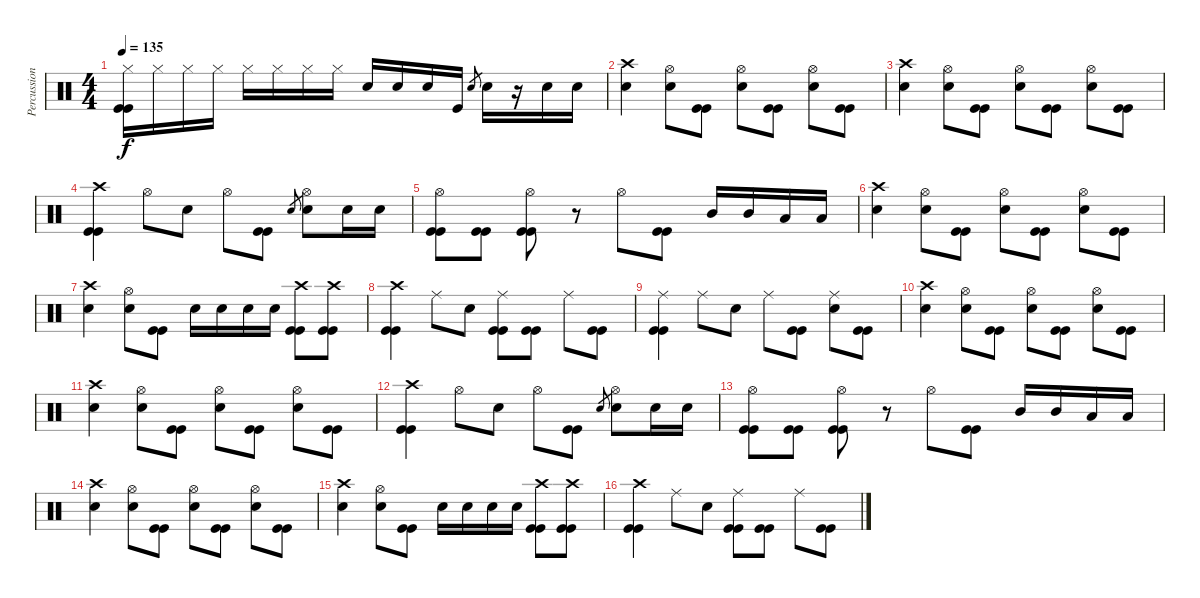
\track ("Percussion" "Percussion") {instrument percussion}
\staff {score}
\articulation defaults
\ts (4 4)
\tempo 135
\clef neutral
\ks c
("Hi-Hat (closed)" "Kick (hit)" "Kick (hit)").16{dy f} "Hi-Hat (closed)".16 "Hi-Hat (closed)".16 "Hi-Hat (closed)".16 "Hi-Hat (closed)".16 "Hi-Hat (closed)".16 "Hi-Hat (closed)".16 "Hi-Hat (closed)".16 "Electric Snare (hit)".16 "Electric Snare (hit)".16 "Electric Snare (hit)".16 "Kick (hit)".16 "Electric Snare (hit)".8{gr} "Electric Snare (hit)".16 r.16 "Electric Snare (hit)".16 "Electric Snare (hit)".16 |
("Crash high (hit)" "Electric Snare (hit)").4 ("Hi-Hat (open)" "Electric Snare (hit)").8 ("Kick (hit)" "Kick (hit)").8 ("Hi-Hat (open)" "Electric Snare (hit)").8 ("Kick (hit)" "Kick (hit)").8 ("Hi-Hat (open)" "Electric Snare (hit)").8 ("Kick (hit)" "Kick (hit)").8 |
("Crash high (hit)" "Electric Snare (hit)").4 ("Hi-Hat (open)" "Electric Snare (hit)").8 ("Kick (hit)" "Kick (hit)").8 ("Hi-Hat (open)" "Electric Snare (hit)").8 ("Kick (hit)" "Kick (hit)").8 ("Hi-Hat (open)" "Electric Snare (hit)").8 ("Kick (hit)" "Kick (hit)").8 |
("Crash high (hit)" "Kick (hit)" "Kick (hit)").4 "Hi-Hat (open)".8 "Electric Snare (hit)".8 "Hi-Hat (open)".8 ("Kick (hit)" "Kick (hit)").8 "Electric Snare (hit)".8{gr} ("Hi-Hat (open)" "Electric Snare (hit)").8 "Electric Snare (hit)".16 "Electric Snare (hit)".16 |
("Hi-Hat (open)" "Kick (hit)" "Kick (hit)").8 ("Kick (hit)" "Kick (hit)").8 ("Hi-Hat (open)" "Kick (hit)" "Kick (hit)").8 r.8 "Hi-Hat (open)".8 ("Kick (hit)" "Kick (hit)").8 "Mid Tom (hit)".16 "Mid Tom (hit)".16 "Low Floor Tom (hit)".16 "Low Floor Tom (hit)".16 |
("Crash high (hit)" "Electric Snare (hit)").4 ("Hi-Hat (open)" "Electric Snare (hit)").8 ("Kick (hit)" "Kick (hit)").8 ("Hi-Hat (open)" "Electric Snare (hit)").8 ("Kick (hit)" "Kick (hit)").8 ("Hi-Hat (open)" "Electric Snare (hit)").8 ("Kick (hit)" "Kick (hit)").8 |
("Crash high (hit)" "Electric Snare (hit)").4 ("Hi-Hat (open)" "Electric Snare (hit)").8 ("Kick (hit)" "Kick (hit)").8 "Electric Snare (hit)".16 "Electric Snare (hit)".16 "Electric Snare (hit)".16 "Electric Snare (hit)".16 ("Crash high (hit)" "Kick (hit)" "Kick (hit)").8 ("Crash high (hit)" "Kick (hit)" "Kick (hit)").8 |
("Crash high (hit)" "Kick (hit)" "Kick (hit)").4 "Ride (middle)".8 "Electric Snare (hit)".8 ("Ride (middle)" "Kick (hit)" "Kick (hit)").8 ("Kick (hit)" "Kick (hit)").8 "Ride (middle)".8 ("Kick (hit)" "Kick (hit)").8 |
("Ride (middle)" "Kick (hit)" "Kick (hit)").4 "Ride (middle)".8 "Electric Snare (hit)".8 "Ride (middle)".8 ("Kick (hit)" "Kick (hit)").8 ("Ride (middle)" "Electric Snare (hit)").8 ("Kick (hit)" "Kick (hit)").8 |
("Crash high (hit)" "Electric Snare (hit)").4 ("Hi-Hat (open)" "Electric Snare (hit)").8 ("Kick (hit)" "Kick (hit)").8 ("Hi-Hat (open)" "Electric Snare (hit)").8 ("Kick (hit)" "Kick (hit)").8 ("Hi-Hat (open)" "Electric Snare (hit)").8 ("Kick (hit)" "Kick (hit)").8 |
("Crash high (hit)" "Electric Snare (hit)").4 ("Hi-Hat (open)" "Electric Snare (hit)").8 ("Kick (hit)" "Kick (hit)").8 ("Hi-Hat (open)" "Electric Snare (hit)").8 ("Kick (hit)" "Kick (hit)").8 ("Hi-Hat (open)" "Electric Snare (hit)").8 ("Kick (hit)" "Kick (hit)").8 |
("Crash high (hit)" "Kick (hit)" "Kick (hit)").4 "Hi-Hat (open)".8 "Electric Snare (hit)".8 "Hi-Hat (open)".8 ("Kick (hit)" "Kick (hit)").8 "Electric Snare (hit)".8{gr} ("Hi-Hat (open)" "Electric Snare (hit)").8 "Electric Snare (hit)".16 "Electric Snare (hit)".16 |
("Hi-Hat (open)" "Kick (hit)" "Kick (hit)").8 ("Kick (hit)" "Kick (hit)").8 ("Hi-Hat (open)" "Kick (hit)" "Kick (hit)").8 r.8 "Hi-Hat (open)".8 ("Kick (hit)" "Kick (hit)").8 "Mid Tom (hit)".16 "Mid Tom (hit)".16 "Low Floor Tom (hit)".16 "Low Floor Tom (hit)".16 |
("Crash high (hit)" "Electric Snare (hit)").4 ("Hi-Hat (open)" "Electric Snare (hit)").8 ("Kick (hit)" "Kick (hit)").8 ("Hi-Hat (open)" "Electric Snare (hit)").8 ("Kick (hit)" "Kick (hit)").8 ("Hi-Hat (open)" "Electric Snare (hit)").8 ("Kick (hit)" "Kick (hit)").8 |
("Crash high (hit)" "Electric Snare (hit)").4 ("Hi-Hat (open)" "Electric Snare (hit)").8 ("Kick (hit)" "Kick (hit)").8 "Electric Snare (hit)".16 "Electric Snare (hit)".16 "Electric Snare (hit)".16 "Electric Snare (hit)".16 ("Crash high (hit)" "Kick (hit)" "Kick (hit)").8 ("Crash high (hit)" "Kick (hit)" "Kick (hit)").8 |
("Crash high (hit)" "Kick (hit)" "Kick (hit)").4 "Ride (middle)".8 "Electric Snare (hit)".8 ("Ride (middle)" "Kick (hit)" "Kick (hit)").8 ("Kick (hit)" "Kick (hit)").8 "Ride (middle)".8 ("Kick (hit)" "Kick (hit)").8
